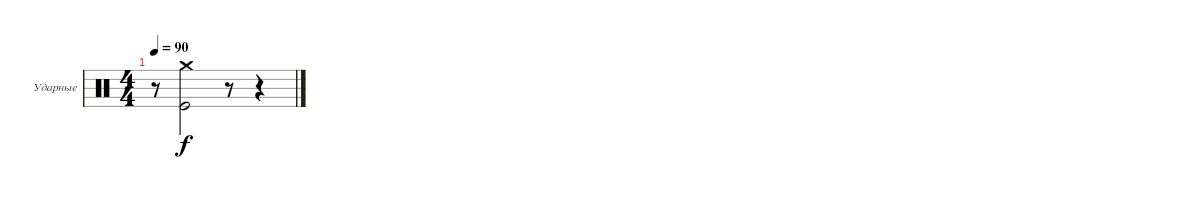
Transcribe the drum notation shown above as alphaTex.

\defaultSystemsLayout 4
\bracketExtendMode groupsimilarinstruments
\firstSystemTrackNameOrientation horizontal
\otherSystemsTrackNameOrientation horizontal
\track ("Drums" "Ударные") {instrument percussion}
\staff {score}
\articulation defaults
\ts (4 4)
\tempo 90
\clef neutral
\ks c
r.8{dy f} ("Crash medium (hit)" "Kick (hit)").2 r.8 r.4
